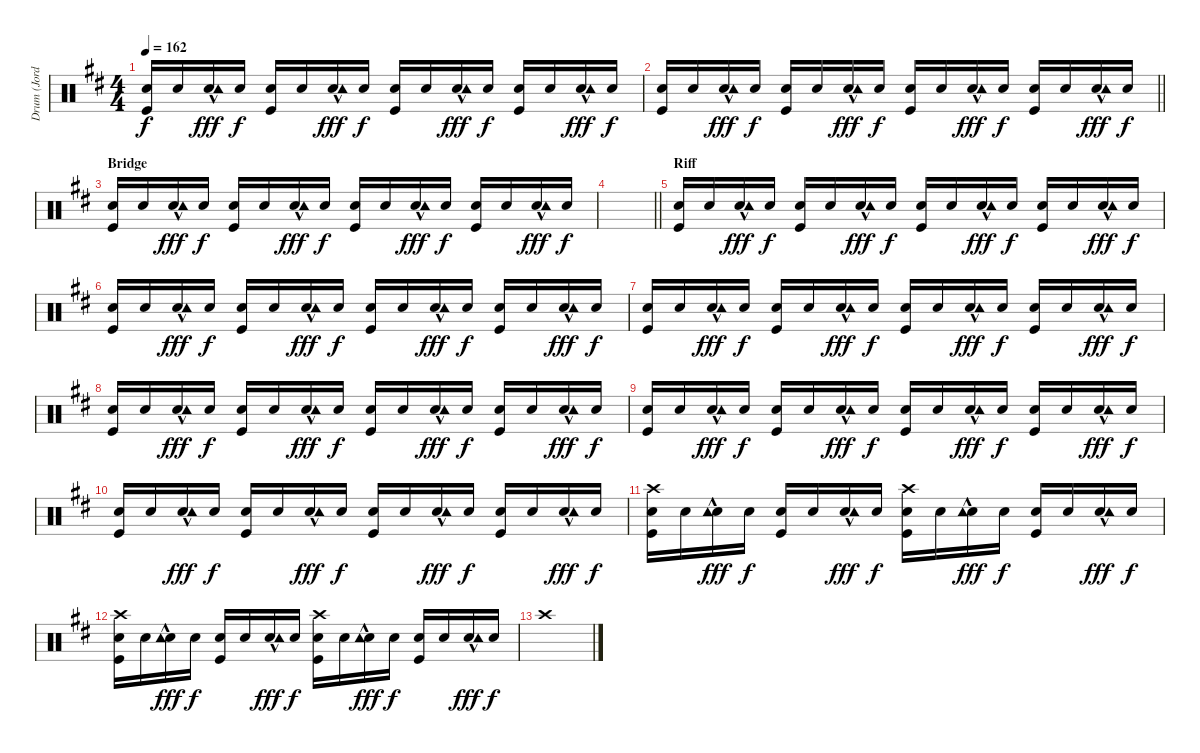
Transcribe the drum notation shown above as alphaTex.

\track ("Drum (Jordan)" "Drum (Jord") {instrument percussion}
\staff {score}
\articulation defaults
\ts (4 4)
\tempo 162
\clef neutral
\ks d
("Snare (hit) 2" "Kick (hit)").16{dy f} "Snare (hit) 2".16 ("Snare (hit) 2"{hac} "Tambourine (hit)").16{dy fff} "Snare (hit) 2".16{dy f} ("Snare (hit) 2" "Kick (hit)").16 "Snare (hit) 2".16 ("Snare (hit) 2"{hac} "Tambourine (hit)").16{dy fff} "Snare (hit) 2".16{dy f} ("Snare (hit) 2" "Kick (hit)").16 "Snare (hit) 2".16 ("Snare (hit) 2"{hac} "Tambourine (hit)").16{dy fff} "Snare (hit) 2".16{dy f} ("Snare (hit) 2" "Kick (hit)").16 "Snare (hit) 2".16 ("Snare (hit) 2"{hac} "Tambourine (hit)").16{dy fff} "Snare (hit) 2".16{dy f} |
\barLineRight lightlight
("Snare (hit) 2" "Kick (hit)").16 "Snare (hit) 2".16 ("Snare (hit) 2"{hac} "Tambourine (hit)").16{dy fff} "Snare (hit) 2".16{dy f} ("Snare (hit) 2" "Kick (hit)").16 "Snare (hit) 2".16 ("Snare (hit) 2"{hac} "Tambourine (hit)").16{dy fff} "Snare (hit) 2".16{dy f} ("Snare (hit) 2" "Kick (hit)").16 "Snare (hit) 2".16 ("Snare (hit) 2"{hac} "Tambourine (hit)").16{dy fff} "Snare (hit) 2".16{dy f} ("Snare (hit) 2" "Kick (hit)").16 "Snare (hit) 2".16 ("Snare (hit) 2"{hac} "Tambourine (hit)").16{dy fff} "Snare (hit) 2".16{dy f} |
\section ("" "Bridge")
("Snare (hit) 2" "Kick (hit)").16 "Snare (hit) 2".16 ("Snare (hit) 2"{hac} "Tambourine (hit)").16{dy fff} "Snare (hit) 2".16{dy f} ("Snare (hit) 2" "Kick (hit)").16 "Snare (hit) 2".16 ("Snare (hit) 2"{hac} "Tambourine (hit)").16{dy fff} "Snare (hit) 2".16{dy f} ("Snare (hit) 2" "Kick (hit)").16 "Snare (hit) 2".16 ("Snare (hit) 2"{hac} "Tambourine (hit)").16{dy fff} "Snare (hit) 2".16{dy f} ("Snare (hit) 2" "Kick (hit)").16 "Snare (hit) 2".16 ("Snare (hit) 2"{hac} "Tambourine (hit)").16{dy fff} "Snare (hit) 2".16{dy f} |
\barLineRight lightlight
|
\section ("" "Riff")
("Snare (hit) 2" "Kick (hit)").16 "Snare (hit) 2".16 ("Snare (hit) 2"{hac} "Tambourine (hit)").16{dy fff} "Snare (hit) 2".16{dy f} ("Snare (hit) 2" "Kick (hit)").16 "Snare (hit) 2".16 ("Snare (hit) 2"{hac} "Tambourine (hit)").16{dy fff} "Snare (hit) 2".16{dy f} ("Snare (hit) 2" "Kick (hit)").16 "Snare (hit) 2".16 ("Snare (hit) 2"{hac} "Tambourine (hit)").16{dy fff} "Snare (hit) 2".16{dy f} ("Snare (hit) 2" "Kick (hit)").16 "Snare (hit) 2".16 ("Snare (hit) 2"{hac} "Tambourine (hit)").16{dy fff} "Snare (hit) 2".16{dy f} |
("Snare (hit) 2" "Kick (hit)").16 "Snare (hit) 2".16 ("Snare (hit) 2"{hac} "Tambourine (hit)").16{dy fff} "Snare (hit) 2".16{dy f} ("Snare (hit) 2" "Kick (hit)").16 "Snare (hit) 2".16 ("Snare (hit) 2"{hac} "Tambourine (hit)").16{dy fff} "Snare (hit) 2".16{dy f} ("Snare (hit) 2" "Kick (hit)").16 "Snare (hit) 2".16 ("Snare (hit) 2"{hac} "Tambourine (hit)").16{dy fff} "Snare (hit) 2".16{dy f} ("Snare (hit) 2" "Kick (hit)").16 "Snare (hit) 2".16 ("Snare (hit) 2"{hac} "Tambourine (hit)").16{dy fff} "Snare (hit) 2".16{dy f} |
("Snare (hit) 2" "Kick (hit)").16 "Snare (hit) 2".16 ("Snare (hit) 2"{hac} "Tambourine (hit)").16{dy fff} "Snare (hit) 2".16{dy f} ("Snare (hit) 2" "Kick (hit)").16 "Snare (hit) 2".16 ("Snare (hit) 2"{hac} "Tambourine (hit)").16{dy fff} "Snare (hit) 2".16{dy f} ("Snare (hit) 2" "Kick (hit)").16 "Snare (hit) 2".16 ("Snare (hit) 2"{hac} "Tambourine (hit)").16{dy fff} "Snare (hit) 2".16{dy f} ("Snare (hit) 2" "Kick (hit)").16 "Snare (hit) 2".16 ("Snare (hit) 2"{hac} "Tambourine (hit)").16{dy fff} "Snare (hit) 2".16{dy f} |
("Snare (hit) 2" "Kick (hit)").16 "Snare (hit) 2".16 ("Snare (hit) 2"{hac} "Tambourine (hit)").16{dy fff} "Snare (hit) 2".16{dy f} ("Snare (hit) 2" "Kick (hit)").16 "Snare (hit) 2".16 ("Snare (hit) 2"{hac} "Tambourine (hit)").16{dy fff} "Snare (hit) 2".16{dy f} ("Snare (hit) 2" "Kick (hit)").16 "Snare (hit) 2".16 ("Snare (hit) 2"{hac} "Tambourine (hit)").16{dy fff} "Snare (hit) 2".16{dy f} ("Snare (hit) 2" "Kick (hit)").16 "Snare (hit) 2".16 ("Snare (hit) 2"{hac} "Tambourine (hit)").16{dy fff} "Snare (hit) 2".16{dy f} |
("Snare (hit) 2" "Kick (hit)").16 "Snare (hit) 2".16 ("Snare (hit) 2"{hac} "Tambourine (hit)").16{dy fff} "Snare (hit) 2".16{dy f} ("Snare (hit) 2" "Kick (hit)").16 "Snare (hit) 2".16 ("Snare (hit) 2"{hac} "Tambourine (hit)").16{dy fff} "Snare (hit) 2".16{dy f} ("Snare (hit) 2" "Kick (hit)").16 "Snare (hit) 2".16 ("Snare (hit) 2"{hac} "Tambourine (hit)").16{dy fff} "Snare (hit) 2".16{dy f} ("Snare (hit) 2" "Kick (hit)").16 "Snare (hit) 2".16 ("Snare (hit) 2"{hac} "Tambourine (hit)").16{dy fff} "Snare (hit) 2".16{dy f} |
("Snare (hit) 2" "Kick (hit)").16 "Snare (hit) 2".16 ("Snare (hit) 2"{hac} "Tambourine (hit)").16{dy fff} "Snare (hit) 2".16{dy f} ("Snare (hit) 2" "Kick (hit)").16 "Snare (hit) 2".16 ("Snare (hit) 2"{hac} "Tambourine (hit)").16{dy fff} "Snare (hit) 2".16{dy f} ("Snare (hit) 2" "Kick (hit)").16 "Snare (hit) 2".16 ("Snare (hit) 2"{hac} "Tambourine (hit)").16{dy fff} "Snare (hit) 2".16{dy f} ("Snare (hit) 2" "Kick (hit)").16 "Snare (hit) 2".16 ("Snare (hit) 2"{hac} "Tambourine (hit)").16{dy fff} "Snare (hit) 2".16{dy f} |
("Snare (hit) 2" "Crash high (hit)" "Kick (hit)").16 "Snare (hit) 2".16 ("Snare (hit) 2"{hac} "Tambourine (hit)").16{dy fff} "Snare (hit) 2".16{dy f} ("Snare (hit) 2" "Kick (hit)").16 "Snare (hit) 2".16 ("Snare (hit) 2"{hac} "Tambourine (hit)").16{dy fff} "Snare (hit) 2".16{dy f} ("Snare (hit) 2" "Crash high (hit)" "Kick (hit)").16 "Snare (hit) 2".16 ("Snare (hit) 2"{hac} "Tambourine (hit)").16{dy fff} "Snare (hit) 2".16{dy f} ("Snare (hit) 2" "Kick (hit)").16 "Snare (hit) 2".16 ("Snare (hit) 2"{hac} "Tambourine (hit)").16{dy fff} "Snare (hit) 2".16{dy f} |
("Snare (hit) 2" "Kick (hit)" "Crash high (hit)").16 "Snare (hit) 2".16 ("Snare (hit) 2"{hac} "Tambourine (hit)").16{dy fff} "Snare (hit) 2".16{dy f} ("Snare (hit) 2" "Kick (hit)").16 "Snare (hit) 2".16 ("Snare (hit) 2"{hac} "Tambourine (hit)").16{dy fff} "Snare (hit) 2".16{dy f} ("Snare (hit) 2" "Kick (hit)" "Crash high (hit)").16 "Snare (hit) 2".16 ("Snare (hit) 2"{hac} "Tambourine (hit)").16{dy fff} "Snare (hit) 2".16{dy f} ("Snare (hit) 2" "Kick (hit)").16 "Snare (hit) 2".16 ("Snare (hit) 2"{hac} "Tambourine (hit)").16{dy fff} "Snare (hit) 2".16{dy f} |
"Crash high (hit)".1
